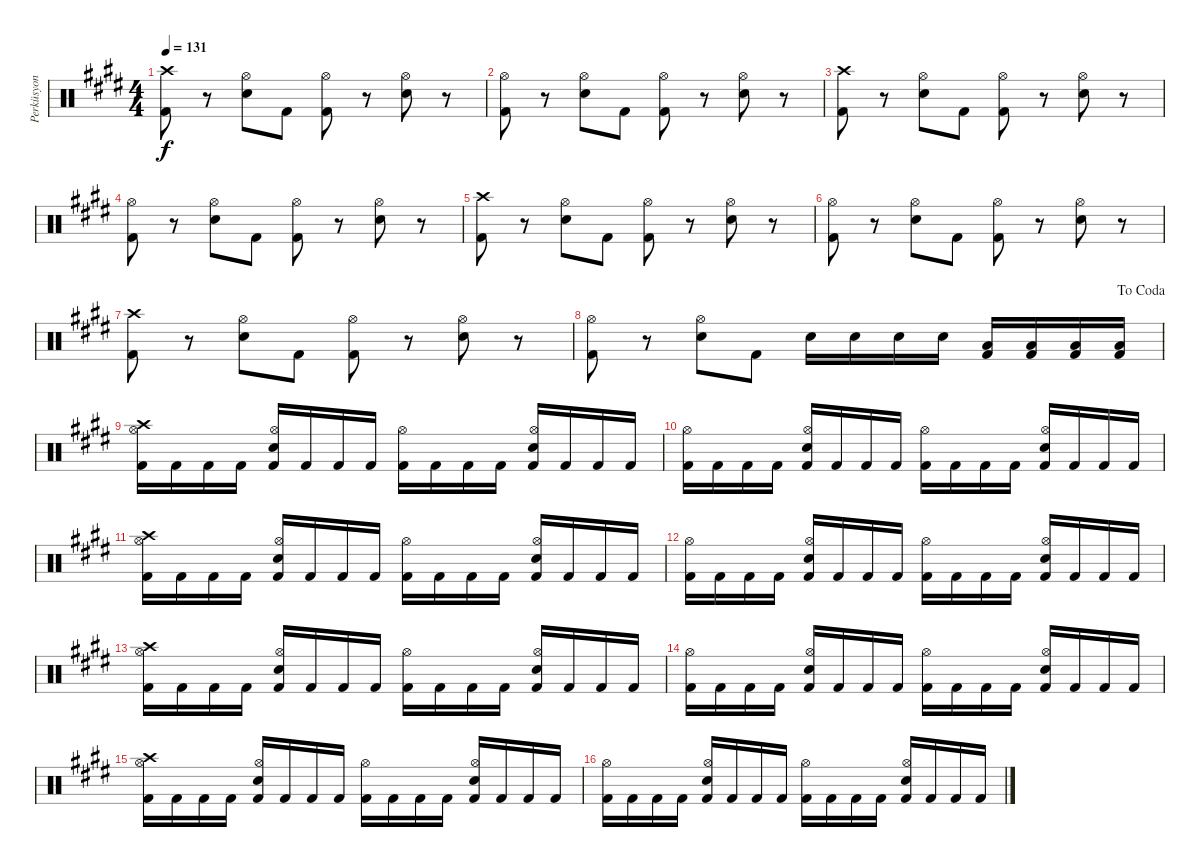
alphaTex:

\track ("Perküsyon" "Perküsyon") {instrument percussion}
\staff {score}
\articulation defaults
\ts (4 4)
\tempo 131
\clef neutral
\ks e
("Crash high (hit)" "Kick (hit) 2").8{dy f} r.8 ("Hi-Hat (open)" "Snare (hit) 2").8 "Kick (hit) 2".8 ("Hi-Hat (open)" "Kick (hit) 2").8 r.8 ("Hi-Hat (open)" "Snare (hit) 2").8 r.8 |
\ks c#minor
("Hi-Hat (open)" "Kick (hit) 2").8 r.8 ("Hi-Hat (open)" "Snare (hit) 2").8 "Kick (hit) 2".8 ("Hi-Hat (open)" "Kick (hit) 2").8 r.8 ("Hi-Hat (open)" "Snare (hit) 2").8 r.8 |
\ks e
("Crash high (hit)" "Kick (hit) 2").8 r.8 ("Hi-Hat (open)" "Snare (hit) 2").8 "Kick (hit) 2".8 ("Hi-Hat (open)" "Kick (hit) 2").8 r.8 ("Hi-Hat (open)" "Snare (hit) 2").8 r.8 |
\ks c#minor
("Hi-Hat (open)" "Kick (hit) 2").8 r.8 ("Hi-Hat (open)" "Snare (hit) 2").8 "Kick (hit) 2".8 ("Hi-Hat (open)" "Kick (hit) 2").8 r.8 ("Hi-Hat (open)" "Snare (hit) 2").8 r.8 |
\ks e
("Crash high (hit)" "Kick (hit) 2").8 r.8 ("Hi-Hat (open)" "Snare (hit) 2").8 "Kick (hit) 2".8 ("Hi-Hat (open)" "Kick (hit) 2").8 r.8 ("Hi-Hat (open)" "Snare (hit) 2").8 r.8 |
\ks c#minor
("Hi-Hat (open)" "Kick (hit) 2").8 r.8 ("Hi-Hat (open)" "Snare (hit) 2").8 "Kick (hit) 2".8 ("Hi-Hat (open)" "Kick (hit) 2").8 r.8 ("Hi-Hat (open)" "Snare (hit) 2").8 r.8 |
\ks e
("Crash high (hit)" "Kick (hit) 2").8 r.8 ("Hi-Hat (open)" "Snare (hit) 2").8 "Kick (hit) 2".8 ("Hi-Hat (open)" "Kick (hit) 2").8 r.8 ("Hi-Hat (open)" "Snare (hit) 2").8 r.8 |
\jump dacoda
\ks c#minor
("Hi-Hat (open)" "Kick (hit) 2").8 r.8 ("Hi-Hat (open)" "Snare (hit) 2").8 "Kick (hit) 2".8 "Snare (hit) 2".16 "Snare (hit) 2".16 "Snare (hit) 2".16 "Snare (hit) 2".16 ("Low Tom (hit)" "Kick (hit) 2").16 ("Low Tom (hit)" "Kick (hit) 2").16 ("Low Tom (hit)" "Kick (hit) 2").16 ("Low Tom (hit)" "Kick (hit) 2").16 |
\ks e
("Crash high (hit)" "Hi-Hat (open)" "Kick (hit) 2").16 "Kick (hit) 2".16 "Kick (hit) 2".16 "Kick (hit) 2".16 ("Hi-Hat (open)" "Snare (hit) 2" "Kick (hit) 2").16 "Kick (hit) 2".16 "Kick (hit) 2".16 "Kick (hit) 2".16 ("Hi-Hat (open)" "Kick (hit) 2").16 "Kick (hit) 2".16 "Kick (hit) 2".16 "Kick (hit) 2".16 ("Hi-Hat (open)" "Snare (hit) 2" "Kick (hit) 2").16 "Kick (hit) 2".16 "Kick (hit) 2".16 "Kick (hit) 2".16 |
\ks c#minor
("Hi-Hat (open)" "Kick (hit) 2").16 "Kick (hit) 2".16 "Kick (hit) 2".16 "Kick (hit) 2".16 ("Hi-Hat (open)" "Snare (hit) 2" "Kick (hit) 2").16 "Kick (hit) 2".16 "Kick (hit) 2".16 "Kick (hit) 2".16 ("Hi-Hat (open)" "Kick (hit) 2").16 "Kick (hit) 2".16 "Kick (hit) 2".16 "Kick (hit) 2".16 ("Hi-Hat (open)" "Snare (hit) 2" "Kick (hit) 2").16 "Kick (hit) 2".16 "Kick (hit) 2".16 "Kick (hit) 2".16 |
\ks e
("Crash high (hit)" "Hi-Hat (open)" "Kick (hit) 2").16 "Kick (hit) 2".16 "Kick (hit) 2".16 "Kick (hit) 2".16 ("Hi-Hat (open)" "Snare (hit) 2" "Kick (hit) 2").16 "Kick (hit) 2".16 "Kick (hit) 2".16 "Kick (hit) 2".16 ("Hi-Hat (open)" "Kick (hit) 2").16 "Kick (hit) 2".16 "Kick (hit) 2".16 "Kick (hit) 2".16 ("Hi-Hat (open)" "Snare (hit) 2" "Kick (hit) 2").16 "Kick (hit) 2".16 "Kick (hit) 2".16 "Kick (hit) 2".16 |
\ks c#minor
("Hi-Hat (open)" "Kick (hit) 2").16 "Kick (hit) 2".16 "Kick (hit) 2".16 "Kick (hit) 2".16 ("Hi-Hat (open)" "Snare (hit) 2" "Kick (hit) 2").16 "Kick (hit) 2".16 "Kick (hit) 2".16 "Kick (hit) 2".16 ("Hi-Hat (open)" "Kick (hit) 2").16 "Kick (hit) 2".16 "Kick (hit) 2".16 "Kick (hit) 2".16 ("Hi-Hat (open)" "Snare (hit) 2" "Kick (hit) 2").16 "Kick (hit) 2".16 "Kick (hit) 2".16 "Kick (hit) 2".16 |
\ks e
("Crash high (hit)" "Hi-Hat (open)" "Kick (hit) 2").16 "Kick (hit) 2".16 "Kick (hit) 2".16 "Kick (hit) 2".16 ("Hi-Hat (open)" "Snare (hit) 2" "Kick (hit) 2").16 "Kick (hit) 2".16 "Kick (hit) 2".16 "Kick (hit) 2".16 ("Hi-Hat (open)" "Kick (hit) 2").16 "Kick (hit) 2".16 "Kick (hit) 2".16 "Kick (hit) 2".16 ("Hi-Hat (open)" "Snare (hit) 2" "Kick (hit) 2").16 "Kick (hit) 2".16 "Kick (hit) 2".16 "Kick (hit) 2".16 |
\ks c#minor
("Hi-Hat (open)" "Kick (hit) 2").16 "Kick (hit) 2".16 "Kick (hit) 2".16 "Kick (hit) 2".16 ("Hi-Hat (open)" "Snare (hit) 2" "Kick (hit) 2").16 "Kick (hit) 2".16 "Kick (hit) 2".16 "Kick (hit) 2".16 ("Hi-Hat (open)" "Kick (hit) 2").16 "Kick (hit) 2".16 "Kick (hit) 2".16 "Kick (hit) 2".16 ("Hi-Hat (open)" "Snare (hit) 2" "Kick (hit) 2").16 "Kick (hit) 2".16 "Kick (hit) 2".16 "Kick (hit) 2".16 |
\ks e
("Crash high (hit)" "Hi-Hat (open)" "Kick (hit) 2").16 "Kick (hit) 2".16 "Kick (hit) 2".16 "Kick (hit) 2".16 ("Hi-Hat (open)" "Snare (hit) 2" "Kick (hit) 2").16 "Kick (hit) 2".16 "Kick (hit) 2".16 "Kick (hit) 2".16 ("Hi-Hat (open)" "Kick (hit) 2").16 "Kick (hit) 2".16 "Kick (hit) 2".16 "Kick (hit) 2".16 ("Hi-Hat (open)" "Snare (hit) 2" "Kick (hit) 2").16 "Kick (hit) 2".16 "Kick (hit) 2".16 "Kick (hit) 2".16 |
\ks c#minor
("Hi-Hat (open)" "Kick (hit) 2").16 "Kick (hit) 2".16 "Kick (hit) 2".16 "Kick (hit) 2".16 ("Hi-Hat (open)" "Snare (hit) 2" "Kick (hit) 2").16 "Kick (hit) 2".16 "Kick (hit) 2".16 "Kick (hit) 2".16 ("Hi-Hat (open)" "Kick (hit) 2").16 "Kick (hit) 2".16 "Kick (hit) 2".16 "Kick (hit) 2".16 ("Hi-Hat (open)" "Snare (hit) 2" "Kick (hit) 2").16 "Kick (hit) 2".16 "Kick (hit) 2".16 "Kick (hit) 2".16
